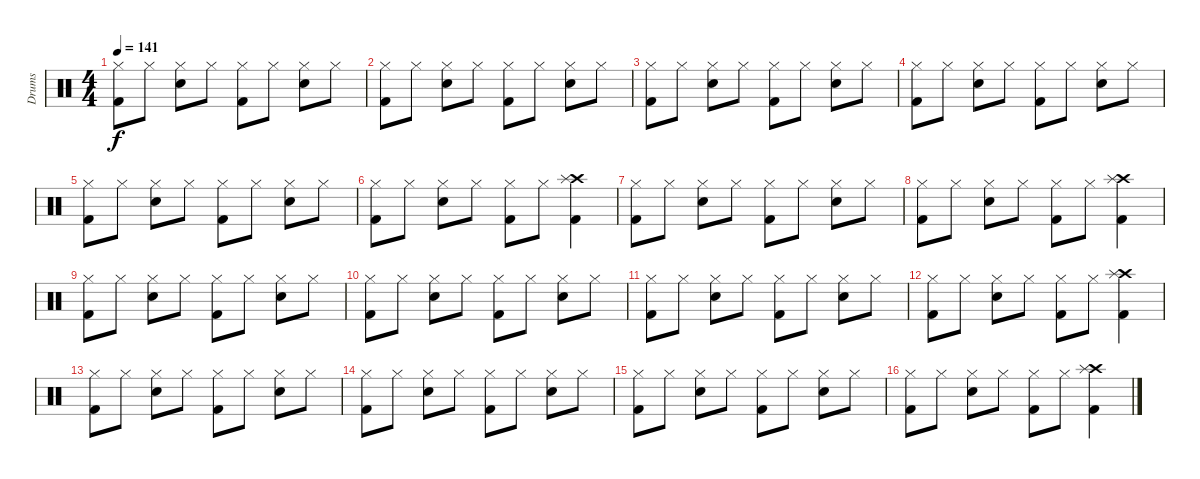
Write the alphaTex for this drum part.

\track ("Drums" "Drums") {instrument percussion}
\staff {score}
\articulation defaults
\ts (4 4)
\tempo 141
\clef neutral
\ks c
("Hi-Hat (closed)" "Kick (hit) 2").8{dy f} "Hi-Hat (closed)".8 ("Hi-Hat (closed)" "Snare (hit) 2").8 "Hi-Hat (closed)".8 ("Hi-Hat (closed)" "Kick (hit) 2").8 "Hi-Hat (closed)".8 ("Hi-Hat (closed)" "Snare (hit) 2").8 "Hi-Hat (closed)".8 |
("Hi-Hat (closed)" "Kick (hit) 2").8 "Hi-Hat (closed)".8 ("Hi-Hat (closed)" "Snare (hit) 2").8 "Hi-Hat (closed)".8 ("Hi-Hat (closed)" "Kick (hit) 2").8 "Hi-Hat (closed)".8 ("Hi-Hat (closed)" "Snare (hit) 2").8 "Hi-Hat (closed)".8 |
("Hi-Hat (closed)" "Kick (hit) 2").8 "Hi-Hat (closed)".8 ("Hi-Hat (closed)" "Snare (hit) 2").8 "Hi-Hat (closed)".8 ("Hi-Hat (closed)" "Kick (hit) 2").8 "Hi-Hat (closed)".8 ("Hi-Hat (closed)" "Snare (hit) 2").8 "Hi-Hat (closed)".8 |
("Hi-Hat (closed)" "Kick (hit) 2").8 "Hi-Hat (closed)".8 ("Hi-Hat (closed)" "Snare (hit) 2").8 "Hi-Hat (closed)".8 ("Hi-Hat (closed)" "Kick (hit) 2").8 "Hi-Hat (closed)".8 ("Hi-Hat (closed)" "Snare (hit) 2").8 "Hi-Hat (closed)".8 |
("Hi-Hat (closed)" "Kick (hit) 2").8 "Hi-Hat (closed)".8 ("Hi-Hat (closed)" "Snare (hit) 2").8 "Hi-Hat (closed)".8 ("Hi-Hat (closed)" "Kick (hit) 2").8 "Hi-Hat (closed)".8 ("Hi-Hat (closed)" "Snare (hit) 2").8 "Hi-Hat (closed)".8 |
("Hi-Hat (closed)" "Kick (hit) 2").8 "Hi-Hat (closed)".8 ("Hi-Hat (closed)" "Snare (hit) 2").8 "Hi-Hat (closed)".8 ("Hi-Hat (closed)" "Kick (hit) 2").8 "Hi-Hat (closed)".8 ("Crash high (hit)" "Splash (hit)" "Kick (hit) 2").4 |
("Hi-Hat (closed)" "Kick (hit) 2").8 "Hi-Hat (closed)".8 ("Hi-Hat (closed)" "Snare (hit) 2").8 "Hi-Hat (closed)".8 ("Hi-Hat (closed)" "Kick (hit) 2").8 "Hi-Hat (closed)".8 ("Hi-Hat (closed)" "Snare (hit) 2").8 "Hi-Hat (closed)".8 |
("Hi-Hat (closed)" "Kick (hit) 2").8 "Hi-Hat (closed)".8 ("Hi-Hat (closed)" "Snare (hit) 2").8 "Hi-Hat (closed)".8 ("Hi-Hat (closed)" "Kick (hit) 2").8 "Hi-Hat (closed)".8 ("Crash high (hit)" "Splash (hit)" "Kick (hit) 2").4 |
("Hi-Hat (closed)" "Kick (hit) 2").8 "Hi-Hat (closed)".8 ("Hi-Hat (closed)" "Snare (hit) 2").8 "Hi-Hat (closed)".8 ("Hi-Hat (closed)" "Kick (hit) 2").8 "Hi-Hat (closed)".8 ("Hi-Hat (closed)" "Snare (hit) 2").8 "Hi-Hat (closed)".8 |
("Hi-Hat (closed)" "Kick (hit) 2").8 "Hi-Hat (closed)".8 ("Hi-Hat (closed)" "Snare (hit) 2").8 "Hi-Hat (closed)".8 ("Hi-Hat (closed)" "Kick (hit) 2").8 "Hi-Hat (closed)".8 ("Hi-Hat (closed)" "Snare (hit) 2").8 "Hi-Hat (closed)".8 |
("Hi-Hat (closed)" "Kick (hit) 2").8 "Hi-Hat (closed)".8 ("Hi-Hat (closed)" "Snare (hit) 2").8 "Hi-Hat (closed)".8 ("Hi-Hat (closed)" "Kick (hit) 2").8 "Hi-Hat (closed)".8 ("Hi-Hat (closed)" "Snare (hit) 2").8 "Hi-Hat (closed)".8 |
("Hi-Hat (closed)" "Kick (hit) 2").8 "Hi-Hat (closed)".8 ("Hi-Hat (closed)" "Snare (hit) 2").8 "Hi-Hat (closed)".8 ("Hi-Hat (closed)" "Kick (hit) 2").8 "Hi-Hat (closed)".8 ("Crash high (hit)" "Splash (hit)" "Kick (hit) 2").4 |
("Hi-Hat (closed)" "Kick (hit) 2").8 "Hi-Hat (closed)".8 ("Hi-Hat (closed)" "Snare (hit) 2").8 "Hi-Hat (closed)".8 ("Hi-Hat (closed)" "Kick (hit) 2").8 "Hi-Hat (closed)".8 ("Hi-Hat (closed)" "Snare (hit) 2").8 "Hi-Hat (closed)".8 |
("Hi-Hat (closed)" "Kick (hit) 2").8 "Hi-Hat (closed)".8 ("Hi-Hat (closed)" "Snare (hit) 2").8 "Hi-Hat (closed)".8 ("Hi-Hat (closed)" "Kick (hit) 2").8 "Hi-Hat (closed)".8 ("Hi-Hat (closed)" "Snare (hit) 2").8 "Hi-Hat (closed)".8 |
("Hi-Hat (closed)" "Kick (hit) 2").8 "Hi-Hat (closed)".8 ("Hi-Hat (closed)" "Snare (hit) 2").8 "Hi-Hat (closed)".8 ("Hi-Hat (closed)" "Kick (hit) 2").8 "Hi-Hat (closed)".8 ("Hi-Hat (closed)" "Snare (hit) 2").8 "Hi-Hat (closed)".8 |
("Hi-Hat (closed)" "Kick (hit) 2").8 "Hi-Hat (closed)".8 ("Hi-Hat (closed)" "Snare (hit) 2").8 "Hi-Hat (closed)".8 ("Hi-Hat (closed)" "Kick (hit) 2").8 "Hi-Hat (closed)".8 ("Crash high (hit)" "Splash (hit)" "Kick (hit) 2").4
